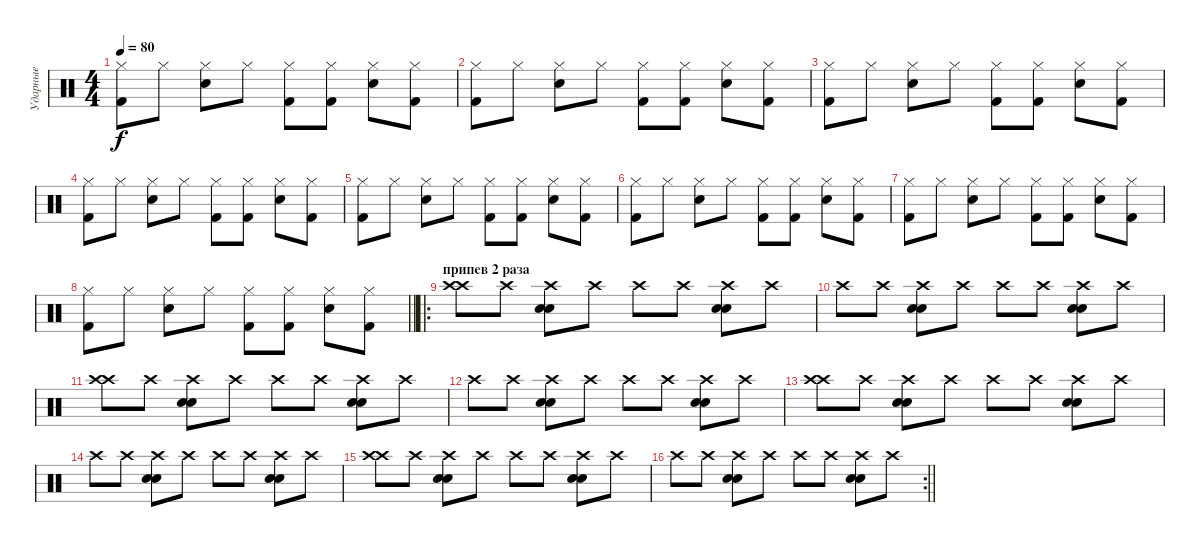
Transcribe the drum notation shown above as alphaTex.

\track ("Ударные" "Ударные") {instrument percussion}
\staff {score}
\articulation defaults
\ts (4 4)
\tempo 80
\clef neutral
\ks c
("Hi-Hat (closed)" "Kick (hit) 2").8{dy f} "Hi-Hat (closed)".8 ("Hi-Hat (closed)" "Snare (hit) 2").8 "Hi-Hat (closed)".8 ("Hi-Hat (closed)" "Kick (hit) 2").8 ("Hi-Hat (closed)" "Kick (hit) 2").8 ("Hi-Hat (closed)" "Snare (hit) 2").8 ("Hi-Hat (closed)" "Kick (hit) 2").8 |
("Hi-Hat (closed)" "Kick (hit) 2").8 "Hi-Hat (closed)".8 ("Hi-Hat (closed)" "Snare (hit) 2").8 "Hi-Hat (closed)".8 ("Hi-Hat (closed)" "Kick (hit) 2").8 ("Hi-Hat (closed)" "Kick (hit) 2").8 ("Hi-Hat (closed)" "Snare (hit) 2").8 ("Hi-Hat (closed)" "Kick (hit) 2").8 |
("Hi-Hat (closed)" "Kick (hit) 2").8 "Hi-Hat (closed)".8 ("Hi-Hat (closed)" "Snare (hit) 2").8 "Hi-Hat (closed)".8 ("Hi-Hat (closed)" "Kick (hit) 2").8 ("Hi-Hat (closed)" "Kick (hit) 2").8 ("Hi-Hat (closed)" "Snare (hit) 2").8 ("Hi-Hat (closed)" "Kick (hit) 2").8 |
("Hi-Hat (closed)" "Kick (hit) 2").8 "Hi-Hat (closed)".8 ("Hi-Hat (closed)" "Snare (hit) 2").8 "Hi-Hat (closed)".8 ("Hi-Hat (closed)" "Kick (hit) 2").8 ("Hi-Hat (closed)" "Kick (hit) 2").8 ("Hi-Hat (closed)" "Snare (hit) 2").8 ("Hi-Hat (closed)" "Kick (hit) 2").8 |
("Hi-Hat (closed)" "Kick (hit) 2").8 "Hi-Hat (closed)".8 ("Hi-Hat (closed)" "Snare (hit) 2").8 "Hi-Hat (closed)".8 ("Hi-Hat (closed)" "Kick (hit) 2").8 ("Hi-Hat (closed)" "Kick (hit) 2").8 ("Hi-Hat (closed)" "Snare (hit) 2").8 ("Hi-Hat (closed)" "Kick (hit) 2").8 |
("Hi-Hat (closed)" "Kick (hit) 2").8 "Hi-Hat (closed)".8 ("Hi-Hat (closed)" "Snare (hit) 2").8 "Hi-Hat (closed)".8 ("Hi-Hat (closed)" "Kick (hit) 2").8 ("Hi-Hat (closed)" "Kick (hit) 2").8 ("Hi-Hat (closed)" "Snare (hit) 2").8 ("Hi-Hat (closed)" "Kick (hit) 2").8 |
("Hi-Hat (closed)" "Kick (hit) 2").8 "Hi-Hat (closed)".8 ("Hi-Hat (closed)" "Snare (hit) 2").8 "Hi-Hat (closed)".8 ("Hi-Hat (closed)" "Kick (hit) 2").8 ("Hi-Hat (closed)" "Kick (hit) 2").8 ("Hi-Hat (closed)" "Snare (hit) 2").8 ("Hi-Hat (closed)" "Kick (hit) 2").8 |
\barLineRight lightlight
("Hi-Hat (closed)" "Kick (hit) 2").8 "Hi-Hat (closed)".8 ("Hi-Hat (closed)" "Snare (hit) 2").8 "Hi-Hat (closed)".8 ("Hi-Hat (closed)" "Kick (hit) 2").8 ("Hi-Hat (closed)" "Kick (hit) 2").8 ("Hi-Hat (closed)" "Snare (hit) 2").8 ("Hi-Hat (closed)" "Kick (hit) 2").8 |
\ro
\section ("" "припев 2 раза")
("Crash high (hit)" "Crash high (hit)").8 "Crash high (hit)".8 ("Crash high (hit)" "Snare (hit) 2" "Hand Clap (hit)").8 "Crash high (hit)".8 "Crash high (hit)".8 "Crash high (hit)".8 ("Crash high (hit)" "Snare (hit) 2" "Hand Clap (hit)").8 "Crash high (hit)".8 |
"Crash high (hit)".8 "Crash high (hit)".8 ("Crash high (hit)" "Snare (hit) 2" "Hand Clap (hit)").8 "Crash high (hit)".8 "Crash high (hit)".8 "Crash high (hit)".8 ("Crash high (hit)" "Snare (hit) 2" "Hand Clap (hit)").8 "Crash high (hit)".8 |
("Crash high (hit)" "Crash high (hit)").8 "Crash high (hit)".8 ("Crash high (hit)" "Snare (hit) 2" "Hand Clap (hit)").8 "Crash high (hit)".8 "Crash high (hit)".8 "Crash high (hit)".8 ("Crash high (hit)" "Snare (hit) 2" "Hand Clap (hit)").8 "Crash high (hit)".8 |
"Crash high (hit)".8 "Crash high (hit)".8 ("Crash high (hit)" "Snare (hit) 2" "Hand Clap (hit)").8 "Crash high (hit)".8 "Crash high (hit)".8 "Crash high (hit)".8 ("Crash high (hit)" "Snare (hit) 2" "Hand Clap (hit)").8 "Crash high (hit)".8 |
("Crash high (hit)" "Crash high (hit)").8 "Crash high (hit)".8 ("Crash high (hit)" "Snare (hit) 2" "Hand Clap (hit)").8 "Crash high (hit)".8 "Crash high (hit)".8 "Crash high (hit)".8 ("Crash high (hit)" "Snare (hit) 2" "Hand Clap (hit)").8 "Crash high (hit)".8 |
"Crash high (hit)".8 "Crash high (hit)".8 ("Crash high (hit)" "Snare (hit) 2" "Hand Clap (hit)").8 "Crash high (hit)".8 "Crash high (hit)".8 "Crash high (hit)".8 ("Crash high (hit)" "Snare (hit) 2" "Hand Clap (hit)").8 "Crash high (hit)".8 |
("Crash high (hit)" "Crash high (hit)").8 "Crash high (hit)".8 ("Crash high (hit)" "Snare (hit) 2" "Hand Clap (hit)").8 "Crash high (hit)".8 "Crash high (hit)".8 "Crash high (hit)".8 ("Crash high (hit)" "Snare (hit) 2" "Hand Clap (hit)").8 "Crash high (hit)".8 |
\rc 2
\barLineRight lightlight "Crash high (hit)".8 "Crash high (hit)".8
("Crash high (hit)" "Snare (hit) 2" "Hand Clap (hit)").8 "Crash high (hit)".8 "Crash high (hit)".8 "Crash high (hit)".8 ("Crash high (hit)" "Snare (hit) 2" "Hand Clap (hit)").8 "Crash high (hit)".8
